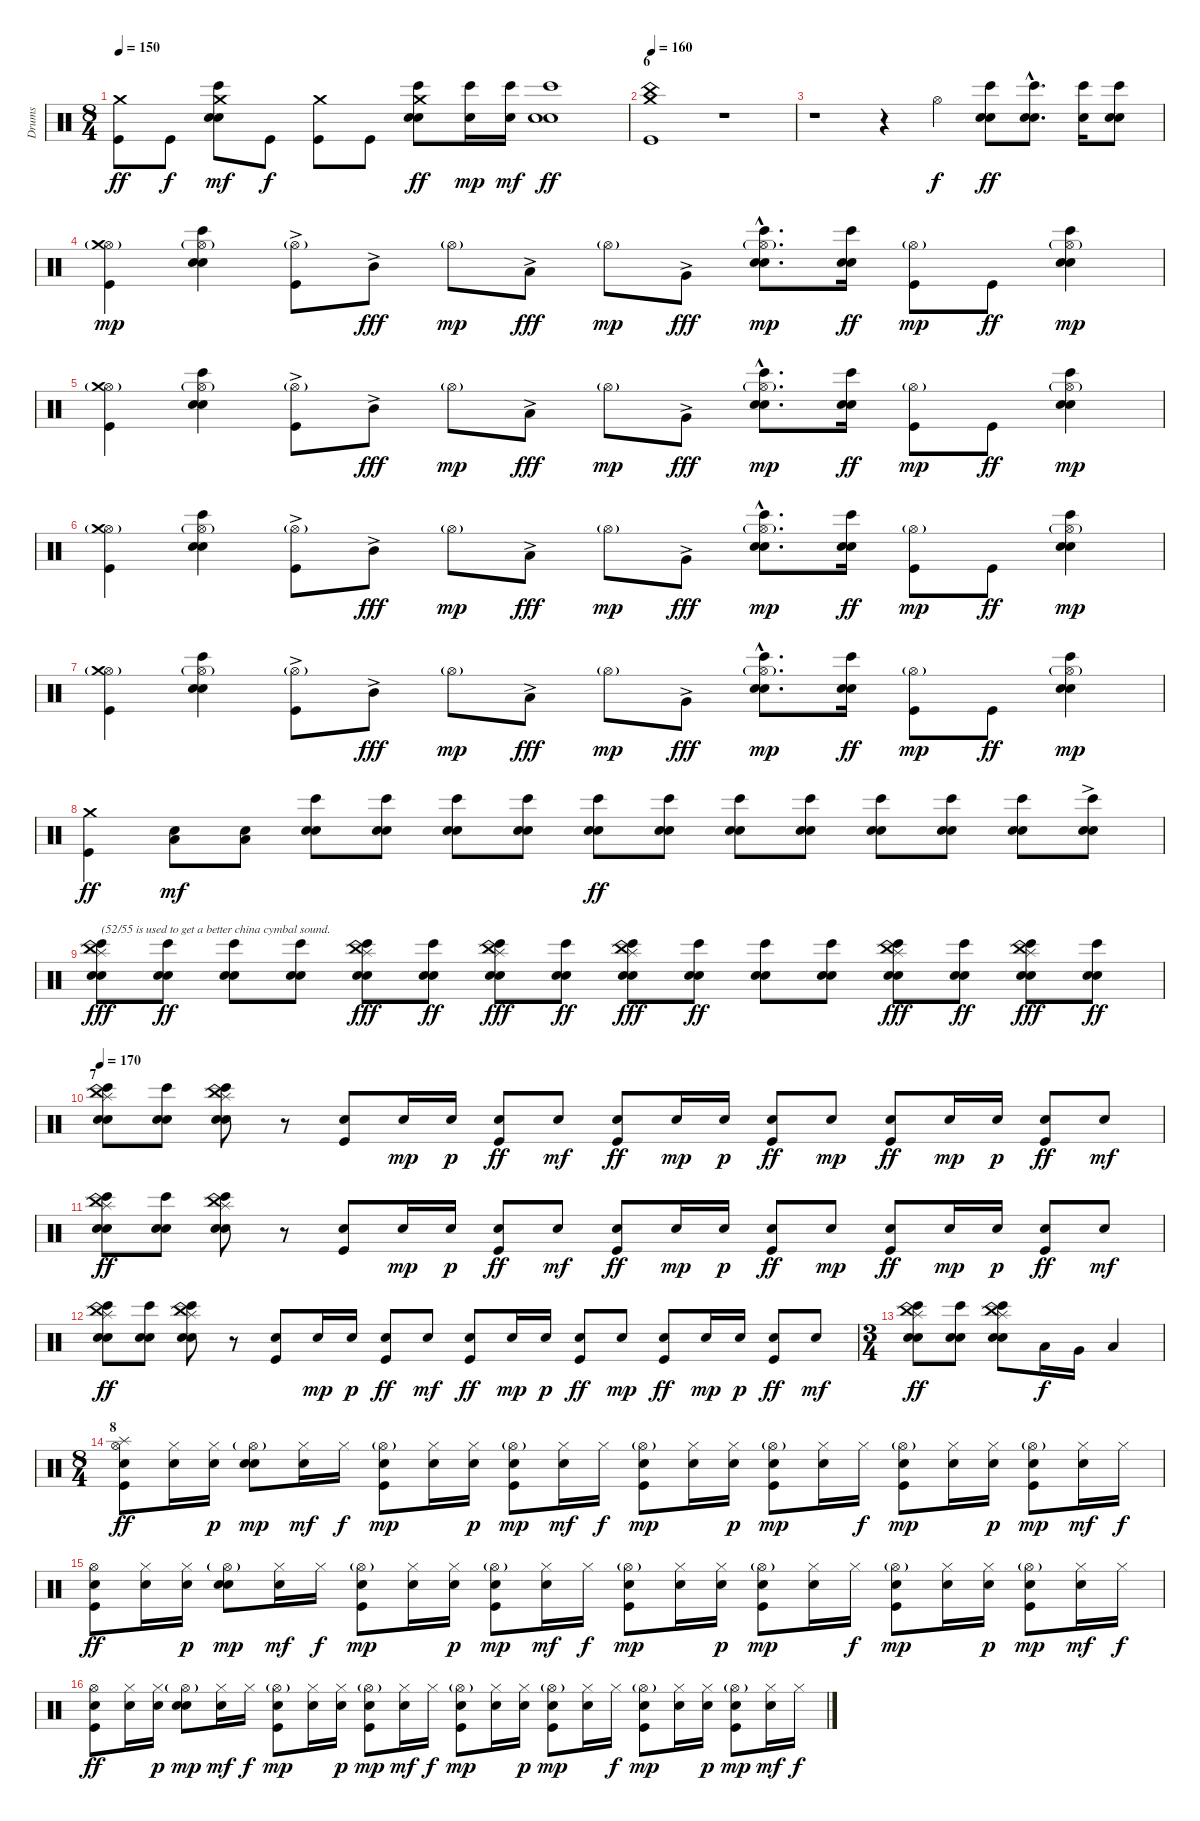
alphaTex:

\track ("Drums" "Drums") {instrument percussion}
\staff {score}
\articulation defaults
\ts (8 4)
\tempo 150
\clef neutral
\ks c
("Kick (hit)" "Crash medium (hit)").8{dy ff} "Kick (hit)".8{dy f} ("Electric Snare (hit)" "Electric Snare (hit)" "Bongo High (hit)" "Crash medium (hit)").8{dy mf} "Kick (hit)".8{dy f} ("Kick (hit)" "Crash medium (hit)").8 "Kick (hit)".8 ("Electric Snare (hit)" "Electric Snare (hit)" "Bongo High (hit)" "Crash medium (hit)").8{dy ff} ("Electric Snare (hit)" "Bongo High (hit)").16{dy mp} ("Electric Snare (hit)" "Bongo High (hit)").16{dy mf} ("Electric Snare (hit)" "Electric Snare (hit)" "Bongo High (hit)").1{dy ff} |
\section ("" "6")
\tempo 160
("Kick (hit)" "China (hit)" "Crash medium (hit)").1 r.1 |
r.1 r.4 "Hi-Hat (open)".4{dy f} ("Electric Snare (hit)" "Electric Snare (hit)" "Bongo High (hit)").8{dy ff} ("Electric Snare (hit)"{hac} "Electric Snare (hit)"{hac} "Bongo High (hit)"{hac}).8{d} ("Electric Snare (hit)" "Bongo High (hit)").16 ("Electric Snare (hit)" "Electric Snare (hit)" "Bongo High (hit)").8 |
("Kick (hit)" "Hi-Hat (open)"{g} "Crash medium (hit)").4{dy mp} ("Electric Snare (hit)" "Electric Snare (hit)" "Bongo High (hit)" "Hi-Hat (open)"{g}).4 ("Kick (hit)"{ac} "Hi-Hat (open)"{g}).8 "Mid Tom (hit)"{ac}.8{dy fff} "Hi-Hat (open)"{g}.8{dy mp} "Low Tom (hit)"{ac}.8{dy fff} "Hi-Hat (open)"{g}.8{dy mp} "Very Low Tom (hit)"{ac}.8{dy fff} ("Electric Snare (hit)"{hac} "Electric Snare (hit)"{hac} "Bongo High (hit)"{hac} "Hi-Hat (open)"{g hac}).8{d dy mp} ("Electric Snare (hit)" "Electric Snare (hit)" "Bongo High (hit)").16{dy ff} ("Kick (hit)" "Hi-Hat (open)"{g}).8{dy mp} "Kick (hit)".8{dy ff} ("Electric Snare (hit)" "Electric Snare (hit)" "Bongo High (hit)" "Hi-Hat (open)"{g}).4{dy mp} |
("Kick (hit)" "Hi-Hat (open)"{g} "Crash medium (hit)"{g}).4 ("Electric Snare (hit)" "Electric Snare (hit)" "Bongo High (hit)" "Hi-Hat (open)"{g}).4 ("Kick (hit)"{ac} "Hi-Hat (open)"{g}).8 "Mid Tom (hit)"{ac}.8{dy fff} "Hi-Hat (open)"{g}.8{dy mp} "Low Tom (hit)"{ac}.8{dy fff} "Hi-Hat (open)"{g}.8{dy mp} "Very Low Tom (hit)"{ac}.8{dy fff} ("Electric Snare (hit)"{hac} "Electric Snare (hit)"{hac} "Bongo High (hit)"{hac} "Hi-Hat (open)"{g hac}).8{d dy mp} ("Electric Snare (hit)" "Electric Snare (hit)" "Bongo High (hit)").16{dy ff} ("Kick (hit)" "Hi-Hat (open)"{g}).8{dy mp} "Kick (hit)".8{dy ff} ("Electric Snare (hit)" "Electric Snare (hit)" "Bongo High (hit)" "Hi-Hat (open)"{g}).4{dy mp} |
("Kick (hit)" "Hi-Hat (open)"{g} "Crash medium (hit)").4 ("Electric Snare (hit)" "Electric Snare (hit)" "Bongo High (hit)" "Hi-Hat (open)"{g}).4 ("Kick (hit)"{ac} "Hi-Hat (open)"{g}).8 "Mid Tom (hit)"{ac}.8{dy fff} "Hi-Hat (open)"{g}.8{dy mp} "Low Tom (hit)"{ac}.8{dy fff} "Hi-Hat (open)"{g}.8{dy mp} "Very Low Tom (hit)"{ac}.8{dy fff} ("Electric Snare (hit)"{hac} "Electric Snare (hit)"{hac} "Bongo High (hit)"{hac} "Hi-Hat (open)"{g hac}).8{d dy mp} ("Electric Snare (hit)" "Electric Snare (hit)" "Bongo High (hit)").16{dy ff} ("Kick (hit)" "Hi-Hat (open)"{g}).8{dy mp} "Kick (hit)".8{dy ff} ("Electric Snare (hit)" "Electric Snare (hit)" "Bongo High (hit)" "Hi-Hat (open)"{g}).4{dy mp} |
("Kick (hit)" "Hi-Hat (open)"{g} "Crash medium (hit)"{g}).4 ("Electric Snare (hit)" "Electric Snare (hit)" "Bongo High (hit)" "Hi-Hat (open)"{g}).4 ("Kick (hit)"{ac} "Hi-Hat (open)"{g}).8 "Mid Tom (hit)"{ac}.8{dy fff} "Hi-Hat (open)"{g}.8{dy mp} "Low Tom (hit)"{ac}.8{dy fff} "Hi-Hat (open)"{g}.8{dy mp} "Very Low Tom (hit)"{ac}.8{dy fff} ("Electric Snare (hit)"{hac} "Electric Snare (hit)"{hac} "Bongo High (hit)"{hac} "Hi-Hat (open)"{g hac}).8{d dy mp} ("Electric Snare (hit)" "Electric Snare (hit)" "Bongo High (hit)").16{dy ff} ("Kick (hit)" "Hi-Hat (open)"{g}).8{dy mp} "Kick (hit)".8{dy ff} ("Electric Snare (hit)" "Electric Snare (hit)" "Bongo High (hit)" "Hi-Hat (open)"{g}).4{dy mp} |
("Kick (hit)" "Crash medium (hit)").4{dy ff} ("Low Floor Tom (hit)" "Electric Snare (hit)").8{dy mf} ("Low Floor Tom (hit)" "Electric Snare (hit)").8 ("Electric Snare (hit)" "Electric Snare (hit)" "Bongo High (hit)").8 ("Electric Snare (hit)" "Electric Snare (hit)" "Bongo High (hit)").8 ("Electric Snare (hit)" "Electric Snare (hit)" "Bongo High (hit)").8 ("Electric Snare (hit)" "Electric Snare (hit)" "Bongo High (hit)").8 ("Electric Snare (hit)" "Electric Snare (hit)" "Bongo High (hit)").8{dy ff} ("Electric Snare (hit)" "Electric Snare (hit)" "Bongo High (hit)").8 ("Electric Snare (hit)" "Electric Snare (hit)" "Bongo High (hit)").8 ("Electric Snare (hit)" "Electric Snare (hit)" "Bongo High (hit)").8 ("Electric Snare (hit)" "Electric Snare (hit)" "Bongo High (hit)").8 ("Electric Snare (hit)" "Electric Snare (hit)" "Bongo High (hit)").8 ("Electric Snare (hit)" "Electric Snare (hit)" "Bongo High (hit)").8 ("Electric Snare (hit)"{ac} "Electric Snare (hit)" "Bongo High (hit)").8 |
("Electric Snare (hit)" "Electric Snare (hit)" "Bongo High (hit)" "China (hit)" "Splash (hit)").8{txt "(52/55 is used to get a better china cymbal sound." dy fff} ("Electric Snare (hit)" "Electric Snare (hit)" "Bongo High (hit)").8{dy ff} ("Electric Snare (hit)" "Electric Snare (hit)" "Bongo High (hit)").8 ("Electric Snare (hit)" "Electric Snare (hit)" "Bongo High (hit)").8 ("Electric Snare (hit)" "Electric Snare (hit)" "Bongo High (hit)" "China (hit)" "Splash (hit)").8{dy fff} ("Electric Snare (hit)" "Electric Snare (hit)" "Bongo High (hit)").8{dy ff} ("Electric Snare (hit)" "Electric Snare (hit)" "Bongo High (hit)" "China (hit)" "Splash (hit)").8{dy fff} ("Electric Snare (hit)" "Electric Snare (hit)" "Bongo High (hit)").8{dy ff} ("Electric Snare (hit)" "Electric Snare (hit)" "Bongo High (hit)" "China (hit)" "Splash (hit)").8{dy fff} ("Electric Snare (hit)" "Electric Snare (hit)" "Bongo High (hit)").8{dy ff} ("Electric Snare (hit)" "Electric Snare (hit)" "Bongo High (hit)").8 ("Electric Snare (hit)" "Electric Snare (hit)" "Bongo High (hit)").8 ("Electric Snare (hit)" "Electric Snare (hit)" "Bongo High (hit)" "China (hit)" "Splash (hit)").8{dy fff} ("Electric Snare (hit)" "Electric Snare (hit)" "Bongo High (hit)").8{dy ff} ("Electric Snare (hit)" "Electric Snare (hit)" "Bongo High (hit)" "China (hit)" "Splash (hit)").8{dy fff} ("Electric Snare (hit)" "Electric Snare (hit)" "Bongo High (hit)").8{dy ff} |
\section ("" "7")
\tempo 170
("Electric Snare (hit)" "Electric Snare (hit)" "Bongo High (hit)" "China (hit)" "Splash (hit)").8 ("Electric Snare (hit)" "Electric Snare (hit)" "Bongo High (hit)").8 ("Electric Snare (hit)" "Electric Snare (hit)" "Bongo High (hit)" "China (hit)" "Splash (hit)").8 r.8{volume 9} ("Kick (hit)" "Electric Snare (hit)").8{volume 13} "Electric Snare (hit)".16{dy mp} "Electric Snare (hit)".16{dy p} ("Kick (hit)" "Electric Snare (hit)").8{dy ff} "Electric Snare (hit)".8{dy mf} ("Kick (hit)" "Electric Snare (hit)").8{dy ff} "Electric Snare (hit)".16{dy mp} "Electric Snare (hit)".16{dy p} ("Kick (hit)" "Electric Snare (hit)").8{dy ff} "Electric Snare (hit)".8{dy mp} ("Kick (hit)" "Electric Snare (hit)").8{dy ff} "Electric Snare (hit)".16{dy mp} "Electric Snare (hit)".16{dy p} ("Kick (hit)" "Electric Snare (hit)").8{dy ff} "Electric Snare (hit)".8{dy mf} |
("Electric Snare (hit)" "Electric Snare (hit)" "Bongo High (hit)" "China (hit)" "Splash (hit)").8{dy ff} ("Electric Snare (hit)" "Electric Snare (hit)" "Bongo High (hit)").8 ("Electric Snare (hit)" "Electric Snare (hit)" "Bongo High (hit)" "China (hit)" "Splash (hit)").8 r.8{volume 6} ("Kick (hit)" "Electric Snare (hit)").8{volume 13} "Electric Snare (hit)".16{dy mp} "Electric Snare (hit)".16{dy p} ("Kick (hit)" "Electric Snare (hit)").8{dy ff} "Electric Snare (hit)".8{dy mf} ("Kick (hit)" "Electric Snare (hit)").8{dy ff} "Electric Snare (hit)".16{dy mp} "Electric Snare (hit)".16{dy p} ("Kick (hit)" "Electric Snare (hit)").8{dy ff} "Electric Snare (hit)".8{dy mp} ("Kick (hit)" "Electric Snare (hit)").8{dy ff} "Electric Snare (hit)".16{dy mp} "Electric Snare (hit)".16{dy p} ("Kick (hit)" "Electric Snare (hit)").8{dy ff} "Electric Snare (hit)".8{dy mf} |
("Electric Snare (hit)" "Electric Snare (hit)" "Bongo High (hit)" "China (hit)" "Splash (hit)").8{dy ff} ("Electric Snare (hit)" "Electric Snare (hit)" "Bongo High (hit)").8 ("Electric Snare (hit)" "Electric Snare (hit)" "Bongo High (hit)" "China (hit)" "Splash (hit)").8 r.8{volume 6} ("Kick (hit)" "Electric Snare (hit)").8{volume 13} "Electric Snare (hit)".16{dy mp} "Electric Snare (hit)".16{dy p} ("Kick (hit)" "Electric Snare (hit)").8{dy ff} "Electric Snare (hit)".8{dy mf} ("Kick (hit)" "Electric Snare (hit)").8{dy ff} "Electric Snare (hit)".16{dy mp} "Electric Snare (hit)".16{dy p} ("Kick (hit)" "Electric Snare (hit)").8{dy ff} "Electric Snare (hit)".8{dy mp} ("Kick (hit)" "Electric Snare (hit)").8{dy ff} "Electric Snare (hit)".16{dy mp} "Electric Snare (hit)".16{dy p} ("Kick (hit)" "Electric Snare (hit)").8{dy ff} "Electric Snare (hit)".8{dy mf} |
\ts (3 4)
("Electric Snare (hit)" "Electric Snare (hit)" "Bongo High (hit)" "China (hit)" "Splash (hit)").8{dy ff} ("Electric Snare (hit)" "Electric Snare (hit)" "Bongo High (hit)").8 ("Electric Snare (hit)" "Electric Snare (hit)" "Bongo High (hit)" "China (hit)" "Splash (hit)").8 "Low Tom (hit)".16{dy f} "Very Low Tom (hit)".16 "Low Floor Tom (hit)".4 |
\ts (8 4)
\section ("" "8")
("Kick (hit)" "Electric Snare (hit)" "Hi-Hat (open)" "Splash (hit)").8{dy ff} ("Electric Snare (hit)" "Hi-Hat (closed)").16 ("Electric Snare (hit)" "Hi-Hat (closed)").16{dy p} ("Electric Snare (hit)" "Electric Snare (hit)" "Hi-Hat (open)"{g}).8{dy mp} ("Electric Snare (hit)" "Hi-Hat (closed)").16{dy mf} "Hi-Hat (closed)".16{dy f} ("Kick (hit)" "Electric Snare (hit)" "Hi-Hat (open)"{g}).8{dy mp} ("Electric Snare (hit)" "Hi-Hat (closed)").16 ("Electric Snare (hit)" "Hi-Hat (closed)").16{dy p} ("Kick (hit)" "Electric Snare (hit)" "Hi-Hat (open)"{g}).8{dy mp} ("Electric Snare (hit)" "Hi-Hat (closed)").16{dy mf} "Hi-Hat (closed)".16{dy f} ("Kick (hit)" "Electric Snare (hit)" "Hi-Hat (open)"{g}).8{dy mp} ("Electric Snare (hit)" "Hi-Hat (closed)").16 ("Electric Snare (hit)" "Hi-Hat (closed)").16{dy p} ("Kick (hit)" "Electric Snare (hit)" "Hi-Hat (open)"{g}).8{dy mp} ("Electric Snare (hit)" "Hi-Hat (closed)").16 "Hi-Hat (closed)".16{dy f} ("Kick (hit)" "Electric Snare (hit)" "Hi-Hat (open)"{g}).8{dy mp} ("Electric Snare (hit)" "Hi-Hat (closed)").16 ("Electric Snare (hit)" "Hi-Hat (closed)").16{dy p} ("Kick (hit)" "Electric Snare (hit)" "Hi-Hat (open)"{g}).8{dy mp} ("Electric Snare (hit)" "Hi-Hat (closed)").16{dy mf} "Hi-Hat (closed)".16{dy f} |
("Kick (hit)" "Electric Snare (hit)" "Hi-Hat (open)").8{dy ff} ("Electric Snare (hit)" "Hi-Hat (closed)").16 ("Electric Snare (hit)" "Hi-Hat (closed)").16{dy p} ("Electric Snare (hit)" "Electric Snare (hit)" "Hi-Hat (open)"{g}).8{dy mp} ("Electric Snare (hit)" "Hi-Hat (closed)").16{dy mf} "Hi-Hat (closed)".16{dy f} ("Kick (hit)" "Electric Snare (hit)" "Hi-Hat (open)"{g}).8{dy mp} ("Electric Snare (hit)" "Hi-Hat (closed)").16 ("Electric Snare (hit)" "Hi-Hat (closed)").16{dy p} ("Kick (hit)" "Electric Snare (hit)" "Hi-Hat (open)"{g}).8{dy mp} ("Electric Snare (hit)" "Hi-Hat (closed)").16{dy mf} "Hi-Hat (closed)".16{dy f} ("Kick (hit)" "Electric Snare (hit)" "Hi-Hat (open)"{g}).8{dy mp} ("Electric Snare (hit)" "Hi-Hat (closed)").16 ("Electric Snare (hit)" "Hi-Hat (closed)").16{dy p} ("Kick (hit)" "Electric Snare (hit)" "Hi-Hat (open)"{g}).8{dy mp} ("Electric Snare (hit)" "Hi-Hat (closed)").16 "Hi-Hat (closed)".16{dy f} ("Kick (hit)" "Electric Snare (hit)" "Hi-Hat (open)"{g}).8{dy mp} ("Electric Snare (hit)" "Hi-Hat (closed)").16 ("Electric Snare (hit)" "Hi-Hat (closed)").16{dy p} ("Kick (hit)" "Electric Snare (hit)" "Hi-Hat (open)"{g}).8{dy mp} ("Electric Snare (hit)" "Hi-Hat (closed)").16{dy mf} "Hi-Hat (closed)".16{dy f} |
("Kick (hit)" "Electric Snare (hit)" "Hi-Hat (open)").8{dy ff} ("Electric Snare (hit)" "Hi-Hat (closed)").16 ("Electric Snare (hit)" "Hi-Hat (closed)").16{dy p} ("Electric Snare (hit)" "Electric Snare (hit)" "Hi-Hat (open)"{g}).8{dy mp} ("Electric Snare (hit)" "Hi-Hat (closed)").16{dy mf} "Hi-Hat (closed)".16{dy f} ("Kick (hit)" "Electric Snare (hit)" "Hi-Hat (open)"{g}).8{dy mp} ("Electric Snare (hit)" "Hi-Hat (closed)").16 ("Electric Snare (hit)" "Hi-Hat (closed)").16{dy p} ("Kick (hit)" "Electric Snare (hit)" "Hi-Hat (open)"{g}).8{dy mp} ("Electric Snare (hit)" "Hi-Hat (closed)").16{dy mf} "Hi-Hat (closed)".16{dy f} ("Kick (hit)" "Electric Snare (hit)" "Hi-Hat (open)"{g}).8{dy mp} ("Electric Snare (hit)" "Hi-Hat (closed)").16 ("Electric Snare (hit)" "Hi-Hat (closed)").16{dy p} ("Kick (hit)" "Electric Snare (hit)" "Hi-Hat (open)"{g}).8{dy mp} ("Electric Snare (hit)" "Hi-Hat (closed)").16 "Hi-Hat (closed)".16{dy f} ("Kick (hit)" "Electric Snare (hit)" "Hi-Hat (open)"{g}).8{dy mp} ("Electric Snare (hit)" "Hi-Hat (closed)").16 ("Electric Snare (hit)" "Hi-Hat (closed)").16{dy p} ("Kick (hit)" "Electric Snare (hit)" "Hi-Hat (open)"{g}).8{dy mp} ("Electric Snare (hit)" "Hi-Hat (closed)").16{dy mf} "Hi-Hat (closed)".16{dy f}
